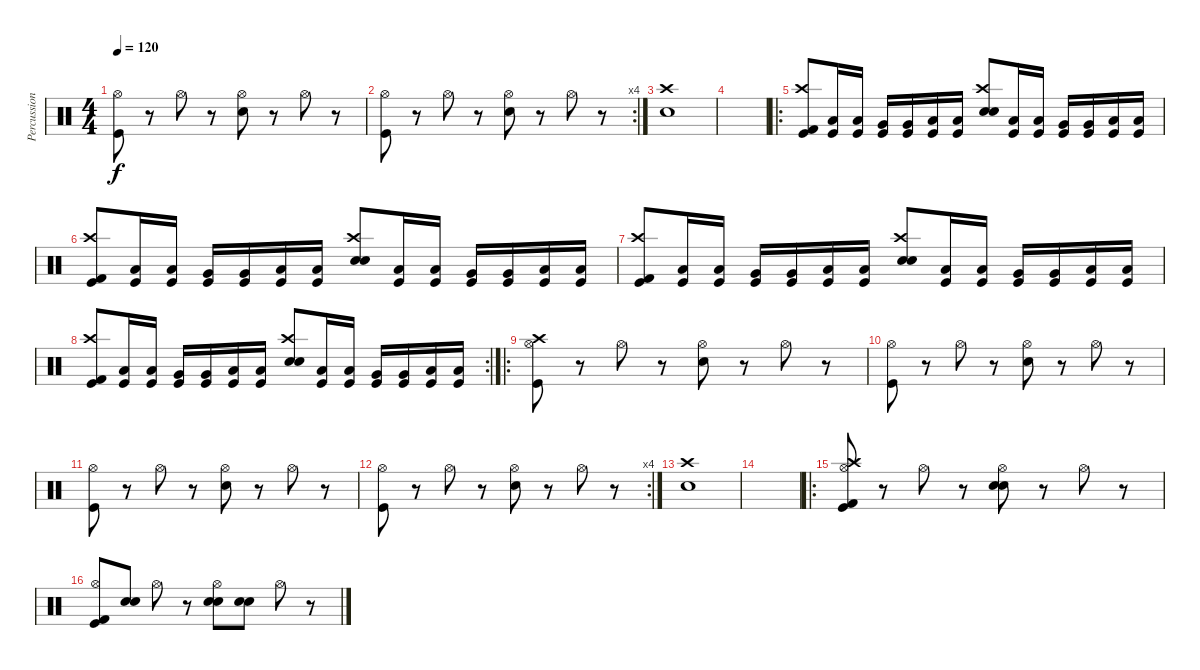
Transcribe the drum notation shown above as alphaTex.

\track ("Percussion" "Percussion") {instrument percussion}
\staff {score}
\articulation defaults
\ts (4 4)
\tempo 120
\clef neutral
\ks c
("Kick (hit)" "Hi-Hat (open)").8{dy f} r.8 "Hi-Hat (open)".8 r.8 ("Electric Snare (hit)" "Hi-Hat (open)").8 r.8 "Hi-Hat (open)".8 r.8 |
\rc 4
("Kick (hit)" "Hi-Hat (open)").8 r.8 "Hi-Hat (open)".8 r.8 ("Electric Snare (hit)" "Hi-Hat (open)").8 r.8 "Hi-Hat (open)".8 r.8 |
("Electric Snare (hit)" "Crash high (hit)").1 |
|
\ro
("Kick (hit)" "Crash high (hit)" "Kick (hit) 2").8 ("Kick (hit)" "Low Tom (hit)").16 ("Kick (hit)" "Low Tom (hit)").16 ("Kick (hit)" "Very Low Tom (hit)").16 ("Kick (hit)" "Very Low Tom (hit)").16 ("Kick (hit)" "Low Floor Tom (hit)").16 ("Kick (hit)" "Low Floor Tom (hit)").16 ("Electric Snare (hit)" "Crash high (hit)" "Snare (hit) 2").8 ("Kick (hit)" "Low Tom (hit)").16 ("Kick (hit)" "Low Tom (hit)").16 ("Kick (hit)" "Very Low Tom (hit)").16 ("Kick (hit)" "Very Low Tom (hit)").16 ("Kick (hit)" "Low Floor Tom (hit)").16 ("Kick (hit)" "Low Floor Tom (hit)").16 |
("Kick (hit)" "Crash high (hit)" "Kick (hit) 2").8 ("Kick (hit)" "Low Tom (hit)").16 ("Kick (hit)" "Low Tom (hit)").16 ("Kick (hit)" "Very Low Tom (hit)").16 ("Kick (hit)" "Very Low Tom (hit)").16 ("Kick (hit)" "Low Floor Tom (hit)").16 ("Kick (hit)" "Low Floor Tom (hit)").16 ("Electric Snare (hit)" "Crash high (hit)" "Snare (hit) 2").8 ("Kick (hit)" "Low Tom (hit)").16 ("Kick (hit)" "Low Tom (hit)").16 ("Kick (hit)" "Very Low Tom (hit)").16 ("Kick (hit)" "Very Low Tom (hit)").16 ("Kick (hit)" "Low Floor Tom (hit)").16 ("Kick (hit)" "Low Floor Tom (hit)").16 |
("Kick (hit)" "Crash high (hit)" "Kick (hit) 2").8 ("Kick (hit)" "Low Tom (hit)").16 ("Kick (hit)" "Low Tom (hit)").16 ("Kick (hit)" "Very Low Tom (hit)").16 ("Kick (hit)" "Very Low Tom (hit)").16 ("Kick (hit)" "Low Floor Tom (hit)").16 ("Kick (hit)" "Low Floor Tom (hit)").16 ("Electric Snare (hit)" "Crash high (hit)" "Snare (hit) 2").8 ("Kick (hit)" "Low Tom (hit)").16 ("Kick (hit)" "Low Tom (hit)").16 ("Kick (hit)" "Very Low Tom (hit)").16 ("Kick (hit)" "Very Low Tom (hit)").16 ("Kick (hit)" "Low Floor Tom (hit)").16 ("Kick (hit)" "Low Floor Tom (hit)").16 |
\rc 2
("Kick (hit)" "Crash high (hit)" "Kick (hit) 2").8 ("Kick (hit)" "Low Tom (hit)").16 ("Kick (hit)" "Low Tom (hit)").16 ("Kick (hit)" "Very Low Tom (hit)").16 ("Kick (hit)" "Very Low Tom (hit)").16 ("Kick (hit)" "Low Floor Tom (hit)").16 ("Kick (hit)" "Low Floor Tom (hit)").16 ("Electric Snare (hit)" "Crash high (hit)" "Snare (hit) 2").8 ("Kick (hit)" "Low Tom (hit)").16 ("Kick (hit)" "Low Tom (hit)").16 ("Kick (hit)" "Very Low Tom (hit)").16 ("Kick (hit)" "Very Low Tom (hit)").16 ("Kick (hit)" "Low Floor Tom (hit)").16 ("Kick (hit)" "Low Floor Tom (hit)").16 |
\ro
("Kick (hit)" "Hi-Hat (open)" "Crash high (hit)").8 r.8 "Hi-Hat (open)".8 r.8 ("Electric Snare (hit)" "Hi-Hat (open)").8 r.8 "Hi-Hat (open)".8 r.8 |
("Kick (hit)" "Hi-Hat (open)").8 r.8 "Hi-Hat (open)".8 r.8 ("Electric Snare (hit)" "Hi-Hat (open)").8 r.8 "Hi-Hat (open)".8 r.8 |
("Kick (hit)" "Hi-Hat (open)").8 r.8 "Hi-Hat (open)".8 r.8 ("Electric Snare (hit)" "Hi-Hat (open)").8 r.8 "Hi-Hat (open)".8 r.8 |
\rc 4
("Kick (hit)" "Hi-Hat (open)").8 r.8 "Hi-Hat (open)".8 r.8 ("Electric Snare (hit)" "Hi-Hat (open)").8 r.8 "Hi-Hat (open)".8 r.8 |
("Electric Snare (hit)" "Crash high (hit)").1 |
|
\ro
("Kick (hit)" "Hi-Hat (open)" "Crash high (hit)" "Kick (hit) 2").8 r.8 "Hi-Hat (open)".8 r.8 ("Electric Snare (hit)" "Hi-Hat (open)" "Snare (hit) 2").8 r.8 "Hi-Hat (open)".8 r.8 |
("Kick (hit)" "Hi-Hat (open)" "Kick (hit) 2").8 ("Electric Snare (hit)" "Snare (hit) 2").8 "Hi-Hat (open)".8 r.8 ("Electric Snare (hit)" "Hi-Hat (open)" "Snare (hit) 2").8 ("Electric Snare (hit)" "Snare (hit) 2").8 "Hi-Hat (open)".8 r.8
